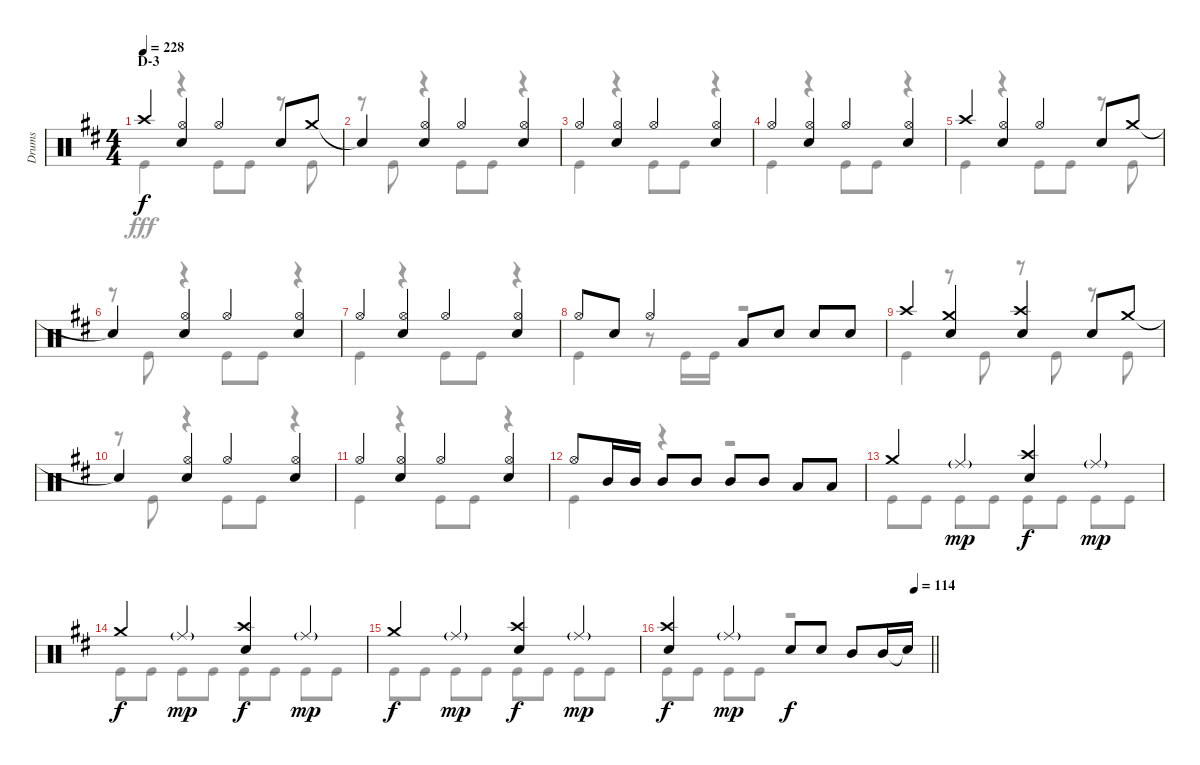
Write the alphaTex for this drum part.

\track ("Drums" "Drums") {instrument percussion}
\staff {score}
\articulation defaults
\voice
\ts (4 4)
\section ("" "D-3")
\tempo 228
\clef neutral
\ks d "Crash high (hit)".4{dy f}
("Hi-Hat (open)" "Snare (hit) 2").4 "Hi-Hat (open)".4 "Snare (hit) 2".8 "Crash medium (hit)".8 |
"Snare (hit)"{t}.4 ("Hi-Hat (open)" "Snare (hit) 2").4 "Hi-Hat (open)".4 ("Hi-Hat (open)" "Snare (hit) 2").4 |
"Hi-Hat (open)".4 ("Hi-Hat (open)" "Snare (hit) 2").4 "Hi-Hat (open)".4 ("Hi-Hat (open)" "Snare (hit) 2").4 |
"Hi-Hat (open)".4 ("Hi-Hat (open)" "Snare (hit) 2").4 "Hi-Hat (open)".4 ("Hi-Hat (open)" "Snare (hit) 2").4 |
"Crash high (hit)".4 ("Hi-Hat (open)" "Snare (hit) 2").4 "Hi-Hat (open)".4 "Snare (hit) 2".8 "Crash medium (hit)".8 |
"Snare (hit)"{t}.4 ("Hi-Hat (open)" "Snare (hit) 2").4 "Hi-Hat (open)".4 ("Hi-Hat (open)" "Snare (hit) 2").4 |
"Hi-Hat (open)".4 ("Hi-Hat (open)" "Snare (hit) 2").4 "Hi-Hat (open)".4 ("Hi-Hat (open)" "Snare (hit) 2").4 |
"Hi-Hat (open)".8 "Snare (hit) 2".8 "Hi-Hat (open)".4 "Low Tom (hit)".8 "Snare (hit) 2".8 "Snare (hit) 2".8 "Snare (hit) 2".8 |
"Crash high (hit)".4 ("Crash medium (hit)" "Snare (hit) 2").4 ("Crash high (hit)" "Snare (hit) 2").4 "Snare (hit) 2".8 "Crash medium (hit)".8 |
"Snare (hit)"{t}.4 ("Hi-Hat (open)" "Snare (hit) 2").4 "Hi-Hat (open)".4 ("Hi-Hat (open)" "Snare (hit) 2").4 |
"Hi-Hat (open)".4 ("Hi-Hat (open)" "Snare (hit) 2").4 "Hi-Hat (open)".4 ("Hi-Hat (open)" "Snare (hit) 2").4 |
"Hi-Hat (open)".8 "Mid Tom (hit)".16 "Mid Tom (hit)".16 "Mid Tom (hit)".8 "Mid Tom (hit)".8 "Mid Tom (hit)".8 "Mid Tom (hit)".8 "Low Tom (hit)".8 "Low Tom (hit)".8 |
"Crash medium (hit)".4 "Ride (middle)"{g}.4{dy mp} ("Crash high (hit)" "Snare (hit) 2").4{dy f} "Ride (middle)"{g}.4{dy mp} |
"Crash medium (hit)".4{dy f} "Ride (middle)"{g}.4{dy mp} ("Crash high (hit)" "Snare (hit) 2").4{dy f} "Ride (middle)"{g}.4{dy mp} |
"Crash medium (hit)".4{dy f} "Ride (middle)"{g}.4{dy mp} ("Crash high (hit)" "Snare (hit) 2").4{dy f} "Ride (middle)"{g}.4{dy mp} |
\tempo (114 0.9375)
\barLineRight lightlight
("Crash high (hit)" "Snare (hit) 2").4{dy f} "Ride (middle)"{g}.4{dy mp} "Snare (hit) 2".8{dy f} "Snare (hit) 2".8 "Mid Tom (hit)".8 "Mid Tom (hit)".16 "Snare (hit)"{t}.16
\voice
\clef neutral
\ottava regular
\simile none
\ks d "Kick (hit)".4{dy fff}
r.4 "Kick (hit)".8 "Kick (hit)".8 r.8 "Kick (hit)".8 |
r.8 "Kick (hit)".8 r.4 "Kick (hit)".8 "Kick (hit)".8 r.4 |
"Kick (hit)".4 r.4 "Kick (hit)".8 "Kick (hit)".8 r.4 |
"Kick (hit)".4 r.4 "Kick (hit)".8 "Kick (hit)".8 r.4 |
"Kick (hit)".4 r.4 "Kick (hit)".8 "Kick (hit)".8 r.8 "Kick (hit)".8 |
r.8 "Kick (hit)".8 r.4 "Kick (hit)".8 "Kick (hit)".8 r.4 |
"Kick (hit)".4 r.4 "Kick (hit)".8 "Kick (hit)".8 r.4 |
"Kick (hit)".4 r.8 "Kick (hit)".16 "Kick (hit)".16 r.2 |
"Kick (hit)".4 r.8 "Kick (hit)".8 r.8 "Kick (hit)".8 r.8 "Kick (hit)".8 |
r.8 "Kick (hit)".8 r.4 "Kick (hit)".8 "Kick (hit)".8 r.4 |
"Kick (hit)".4 r.4 "Kick (hit)".8 "Kick (hit)".8 r.4 |
"Kick (hit)".4 r.4 r.2 |
"Kick (hit)".8 "Kick (hit)".8 "Kick (hit)".8 "Kick (hit)".8 "Kick (hit)".8 "Kick (hit)".8 "Kick (hit)".8 "Kick (hit)".8 |
"Kick (hit)".8 "Kick (hit)".8 "Kick (hit)".8 "Kick (hit)".8 "Kick (hit)".8 "Kick (hit)".8 "Kick (hit)".8 "Kick (hit)".8 |
"Kick (hit)".8 "Kick (hit)".8 "Kick (hit)".8 "Kick (hit)".8 "Kick (hit)".8 "Kick (hit)".8 "Kick (hit)".8 "Kick (hit)".8 |
\barLineRight lightlight "Kick (hit)".8 "Kick (hit)".8 "Kick (hit)".8 "Kick (hit)".8
r.2
